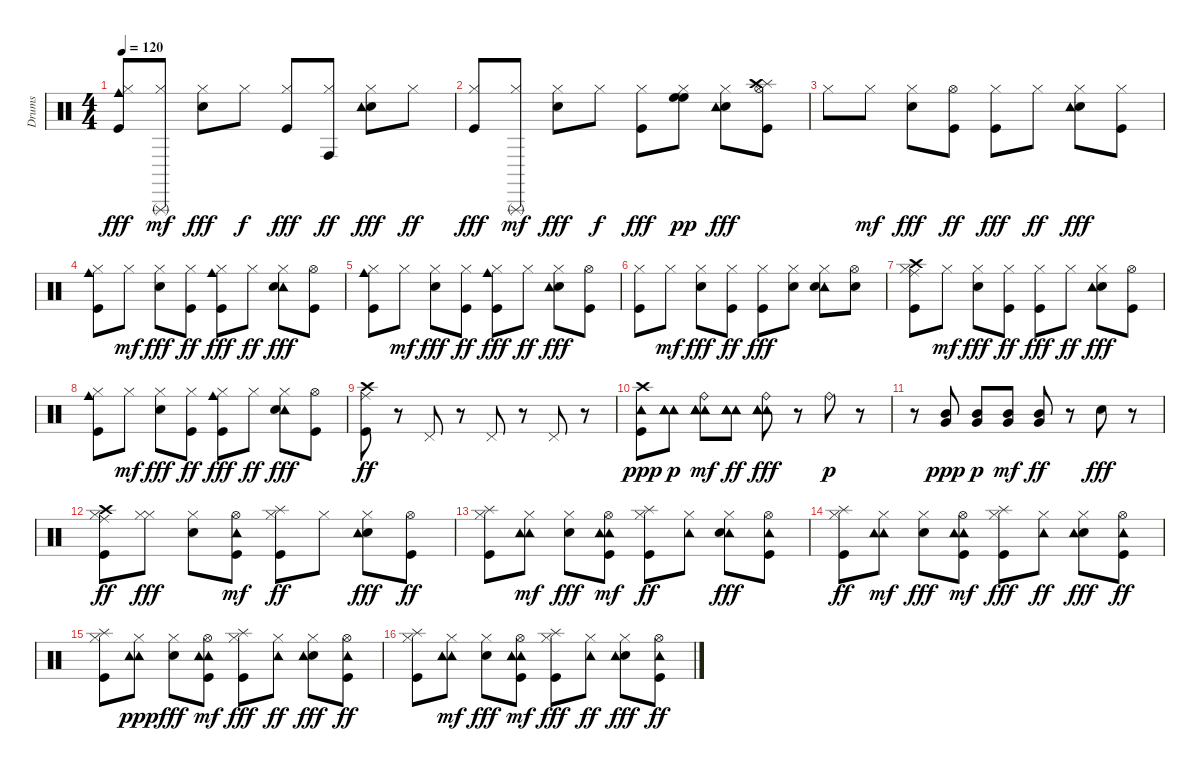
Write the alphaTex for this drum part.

\track ("Drums " "Drums ") {instrument percussion}
\staff {score}
\articulation defaults
\ts (4 4)
\tempo 120
\clef neutral
\ks c
("Hi-Hat (closed)" "Kick (hit)" "Cowbell medium (hit)").8{dy fff} ("Hi-Hat (closed)" "Triangle (rnute)").8{dy mf} ("Hi-Hat (closed)" "Electric Snare (hit)").8{dy fff} "Hi-Hat (closed)".8{dy f} ("Hi-Hat (closed)" "Kick (hit)").8{dy fff} ("Conga high (hit)" "Hi-Hat (closed)").8{dy ff} ("Electric Snare (hit)" "Hi-Hat (closed)" "Tambourine (hit)").8{dy fff} "Hi-Hat (closed)".8{dy ff} |
("Hi-Hat (closed)" "Kick (hit)").8{dy fff} ("Triangle (rnute)" "Hi-Hat (closed)").8{dy mf} ("Hi-Hat (closed)" "Electric Snare (hit)").8{dy fff} "Hi-Hat (closed)".8{dy f} ("Hi-Hat (closed)" "Kick (hit)").8{dy fff} ("Hi-Hat (closed)" "High Floor Tom (hit)" "High Floor Tom (hit)").8{dy pp} ("Hi-Hat (closed)" "Electric Snare (hit)" "Tambourine (hit)").8{dy fff} ("Hi-Hat (open)" "Splash (hit)" "Crash high (hit)" "Kick (hit)").8 |
"Hi-Hat (closed)".8 "Hi-Hat (closed)".8{dy mf} ("Hi-Hat (closed)" "Electric Snare (hit)").8{dy fff} ("Hi-Hat (open)" "Kick (hit)").8{dy ff} ("Hi-Hat (closed)" "Kick (hit)").8{dy fff} "Hi-Hat (closed)".8{dy ff} ("Electric Snare (hit)" "Tambourine (hit)" "Hi-Hat (closed)").8{dy fff} ("Hi-Hat (closed)" "Kick (hit)").8 |
("Hi-Hat (closed)" "Kick (hit)" "Cowbell medium (hit)").8 "Hi-Hat (closed)".8{dy mf} ("Hi-Hat (closed)" "Electric Snare (hit)").8{dy fff} ("Hi-Hat (closed)" "Kick (hit)").8{dy ff} ("Kick (hit)" "Cowbell medium (hit)" "Hi-Hat (closed)").8{dy fff} "Hi-Hat (closed)".8{dy ff} ("Tambourine (hit)" "Hi-Hat (closed)" "Electric Snare (hit)").8{dy fff} ("Hi-Hat (open)" "Kick (hit)").8 |
("Hi-Hat (closed)" "Kick (hit)" "Cowbell medium (hit)").8 "Hi-Hat (closed)".8{dy mf} ("Hi-Hat (closed)" "Electric Snare (hit)").8{dy fff} ("Hi-Hat (closed)" "Kick (hit)").8{dy ff} ("Kick (hit)" "Hi-Hat (closed)" "Cowbell medium (hit)").8{dy fff} "Hi-Hat (closed)".8{dy ff} ("Electric Snare (hit)" "Tambourine (hit)" "Hi-Hat (closed)").8{dy fff} ("Hi-Hat (open)" "Kick (hit)").8 |
("Hi-Hat (closed)" "Kick (hit)").8 "Hi-Hat (closed)".8{dy mf} ("Hi-Hat (closed)" "Electric Snare (hit)").8{dy fff} ("Hi-Hat (closed)" "Kick (hit)").8{dy ff} ("Hi-Hat (closed)" "Kick (hit)").8{dy fff} ("Hi-Hat (closed)" "Electric Snare (hit)").8 ("Tambourine (hit)" "Hi-Hat (closed)" "Electric Snare (hit)").8 ("Hi-Hat (open)" "Electric Snare (hit)").8 |
("Crash high (hit)" "Hi-Hat (closed)" "Kick (hit)" "Ride (middle)").8 "Hi-Hat (closed)".8{dy mf} ("Hi-Hat (closed)" "Electric Snare (hit)").8{dy fff} ("Hi-Hat (closed)" "Kick (hit)").8{dy ff} ("Hi-Hat (closed)" "Kick (hit)").8{dy fff} "Hi-Hat (closed)".8{dy ff} ("Electric Snare (hit)" "Tambourine (hit)" "Hi-Hat (closed)").8{dy fff} ("Hi-Hat (open)" "Kick (hit)").8 |
("Hi-Hat (closed)" "Kick (hit)" "Cowbell medium (hit)").8 "Hi-Hat (closed)".8{dy mf} ("Hi-Hat (closed)" "Electric Snare (hit)").8{dy fff} ("Hi-Hat (closed)" "Kick (hit)").8{dy ff} ("Kick (hit)" "Cowbell medium (hit)" "Hi-Hat (closed)").8{dy fff} "Hi-Hat (closed)".8{dy ff} ("Tambourine (hit)" "Hi-Hat (closed)" "Electric Snare (hit)").8{dy fff} ("Hi-Hat (open)" "Kick (hit)").8 |
("Crash high (hit)" "Kick (hit)" "Ride (middle)").8{dy ff} r.8 "Pedal Hi-Hat (hit)".8 r.8 "Pedal Hi-Hat (hit)".8 r.8 "Pedal Hi-Hat (hit)".8 r.8 |
("Kick (hit)" "Crash high (hit)" "Tambourine (hit)").8{dy ppp} ("Tambourine (hit)" "Tambourine (hit)" "Tambourine (hit)" "Tambourine (hit)").8{dy p} ("Tambourine (hit)" "Ride (bell)" "Tambourine (hit)" "Tambourine (hit)" "Tambourine (hit)").8{dy mf} ("Tambourine (hit)" "Tambourine (hit)" "Tambourine (hit)" "Tambourine (hit)").8{dy ff} ("Tambourine (hit)" "Ride (bell)" "Tambourine (hit)" "Tambourine (hit)").8{dy fff} r.8 "Ride (bell)".8{dy p} r.8 |
r.8 ("Mid Tom (hit)" "Very Low Tom (hit)").8{dy ppp} ("Mid Tom (hit)" "Very Low Tom (hit)").8{dy p} ("Mid Tom (hit)" "Very Low Tom (hit)").8{dy mf} ("Mid Tom (hit)" "Very Low Tom (hit)").8{dy ff} r.8 "Electric Snare (hit)".8{dy fff} r.8 |
("Crash high (hit)" "Hi-Hat (closed)" "Kick (hit)" "Ride (middle)").8{dy ff} ("Hi-Hat (closed)" "Hi-Hat (closed)").8{dy fff} ("Hi-Hat (closed)" "Electric Snare (hit)").8 ("Kick (hit)" "Tambourine (hit)" "Hi-Hat (open)").8{dy mf} ("Hi-Hat (closed)" "Kick (hit)" "Splash (hit)").8{dy ff} "Hi-Hat (closed)".8 ("Electric Snare (hit)" "Tambourine (hit)" "Hi-Hat (closed)").8{dy fff} ("Kick (hit)" "Hi-Hat (open)").8{dy ff} |
("Hi-Hat (closed)" "Kick (hit)" "Splash (hit)").8 ("Tambourine (hit)" "Hi-Hat (closed)" "Tambourine (hit)").8{dy mf} ("Hi-Hat (closed)" "Electric Snare (hit)").8{dy fff} ("Tambourine (hit)" "Kick (hit)" "Tambourine (hit)" "Hi-Hat (open)").8{dy mf} ("Kick (hit)" "Hi-Hat (closed)" "Splash (hit)").8{dy ff} ("Tambourine (hit)" "Hi-Hat (closed)").8 ("Tambourine (hit)" "Hi-Hat (closed)" "Electric Snare (hit)").8{dy fff} ("Tambourine (hit)" "Hi-Hat (open)" "Kick (hit)").8 |
("Hi-Hat (closed)" "Kick (hit)" "Splash (hit)").8{dy ff} ("Tambourine (hit)" "Hi-Hat (closed)" "Tambourine (hit)").8{dy mf} ("Hi-Hat (closed)" "Electric Snare (hit)").8{dy fff} ("Tambourine (hit)" "Kick (hit)" "Tambourine (hit)" "Hi-Hat (open)").8{dy mf} ("Kick (hit)" "Splash (hit)" "Hi-Hat (closed)").8{dy fff} ("Tambourine (hit)" "Hi-Hat (closed)").8{dy ff} ("Electric Snare (hit)" "Tambourine (hit)" "Hi-Hat (closed)").8{dy fff} ("Kick (hit)" "Tambourine (hit)" "Hi-Hat (open)").8{dy ff} |
("Hi-Hat (closed)" "Kick (hit)" "Splash (hit)").8 ("Hi-Hat (closed)" "Tambourine (hit)" "Tambourine (hit)").8{dy ppp} ("Hi-Hat (closed)" "Electric Snare (hit)").8{dy fff} ("Tambourine (hit)" "Kick (hit)" "Tambourine (hit)" "Hi-Hat (open)").8{dy mf} ("Splash (hit)" "Hi-Hat (closed)" "Kick (hit)").8{dy fff} ("Tambourine (hit)" "Hi-Hat (closed)").8{dy ff} ("Electric Snare (hit)" "Tambourine (hit)" "Hi-Hat (closed)").8{dy fff} ("Kick (hit)" "Tambourine (hit)" "Hi-Hat (open)").8{dy ff} |
("Hi-Hat (closed)" "Kick (hit)" "Splash (hit)").8 ("Tambourine (hit)" "Hi-Hat (closed)" "Tambourine (hit)").8{dy mf} ("Hi-Hat (closed)" "Electric Snare (hit)").8{dy fff} ("Tambourine (hit)" "Kick (hit)" "Tambourine (hit)" "Hi-Hat (open)").8{dy mf} ("Kick (hit)" "Splash (hit)" "Hi-Hat (closed)").8{dy fff} ("Tambourine (hit)" "Hi-Hat (closed)").8{dy ff} ("Electric Snare (hit)" "Tambourine (hit)" "Hi-Hat (closed)").8{dy fff} ("Kick (hit)" "Tambourine (hit)" "Hi-Hat (open)").8{dy ff}
